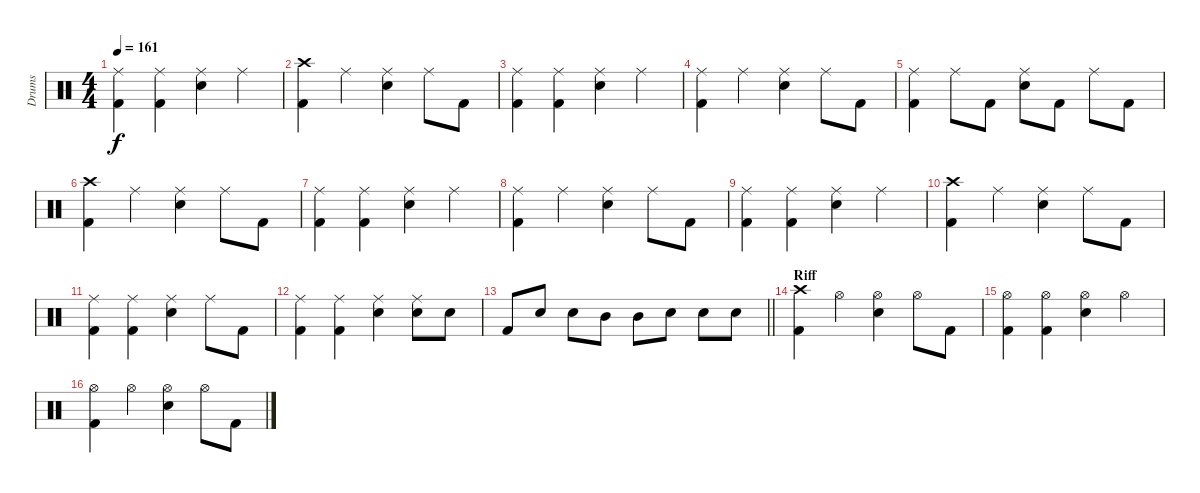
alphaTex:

\track ("Drums" "Drums") {instrument percussion}
\staff {score}
\articulation defaults
\ts (4 4)
\tempo 161
\clef neutral
\ks c
("Ride (middle)" "Kick (hit) 2").4{dy f} ("Ride (middle)" "Kick (hit) 2").4 ("Ride (middle)" "Snare (hit) 2").4 "Ride (middle)".4 |
("Crash high (hit)" "Kick (hit) 2").4 "Ride (middle)".4 ("Ride (middle)" "Snare (hit) 2").4 "Ride (middle)".8 "Kick (hit) 2".8 |
("Ride (middle)" "Kick (hit) 2").4 ("Ride (middle)" "Kick (hit) 2").4 ("Ride (middle)" "Snare (hit) 2").4 "Ride (middle)".4 |
("Ride (middle)" "Kick (hit) 2").4 "Ride (middle)".4 ("Ride (middle)" "Snare (hit) 2").4 "Ride (middle)".8 "Kick (hit) 2".8 |
("Ride (middle)" "Kick (hit) 2").4 "Ride (middle)".8 "Kick (hit) 2".8 ("Ride (middle)" "Snare (hit) 2").8 "Kick (hit) 2".8 "Ride (middle)".8 "Kick (hit) 2".8 |
("Crash high (hit)" "Kick (hit) 2").4 "Ride (middle)".4 ("Ride (middle)" "Snare (hit) 2").4 "Ride (middle)".8 "Kick (hit) 2".8 |
("Ride (middle)" "Kick (hit) 2").4 ("Ride (middle)" "Kick (hit) 2").4 ("Ride (middle)" "Snare (hit) 2").4 "Ride (middle)".4 |
("Ride (middle)" "Kick (hit) 2").4 "Ride (middle)".4 ("Ride (middle)" "Snare (hit) 2").4 "Ride (middle)".8 "Kick (hit) 2".8 |
("Ride (middle)" "Kick (hit) 2").4 ("Ride (middle)" "Kick (hit) 2").4 ("Ride (middle)" "Snare (hit) 2").4 "Ride (middle)".4 |
("Crash high (hit)" "Kick (hit) 2").4 "Ride (middle)".4 ("Ride (middle)" "Snare (hit) 2").4 "Ride (middle)".8 "Kick (hit) 2".8 |
("Ride (middle)" "Kick (hit) 2").4 ("Ride (middle)" "Kick (hit) 2").4 ("Ride (middle)" "Snare (hit) 2").4 "Ride (middle)".8 "Kick (hit) 2".8 |
("Ride (middle)" "Kick (hit) 2").4 ("Ride (middle)" "Kick (hit) 2").4 ("Ride (middle)" "Snare (hit) 2").4 ("Ride (middle)" "Snare (hit) 2").8 "Snare (hit) 2".8 |
\barLineRight lightlight "Kick (hit) 2".8 "Snare (hit) 2".8 "Snare (hit) 2".8 "Mid Tom (hit)".8 "Mid Tom (hit)".8 "Snare (hit) 2".8 "Snare (hit) 2".8 "Snare (hit) 2".8
|
\section ("" "Riff")
("Crash high (hit)" "Kick (hit) 2").4 "Hi-Hat (open)".4 ("Hi-Hat (open)" "Snare (hit) 2").4 "Hi-Hat (open)".8 "Kick (hit) 2".8 |
("Hi-Hat (open)" "Kick (hit) 2").4 ("Hi-Hat (open)" "Kick (hit) 2").4 ("Hi-Hat (open)" "Snare (hit) 2").4 "Hi-Hat (open)".4 |
("Hi-Hat (open)" "Kick (hit) 2").4 "Hi-Hat (open)".4 ("Hi-Hat (open)" "Snare (hit) 2").4 "Hi-Hat (open)".8 "Kick (hit) 2".8
